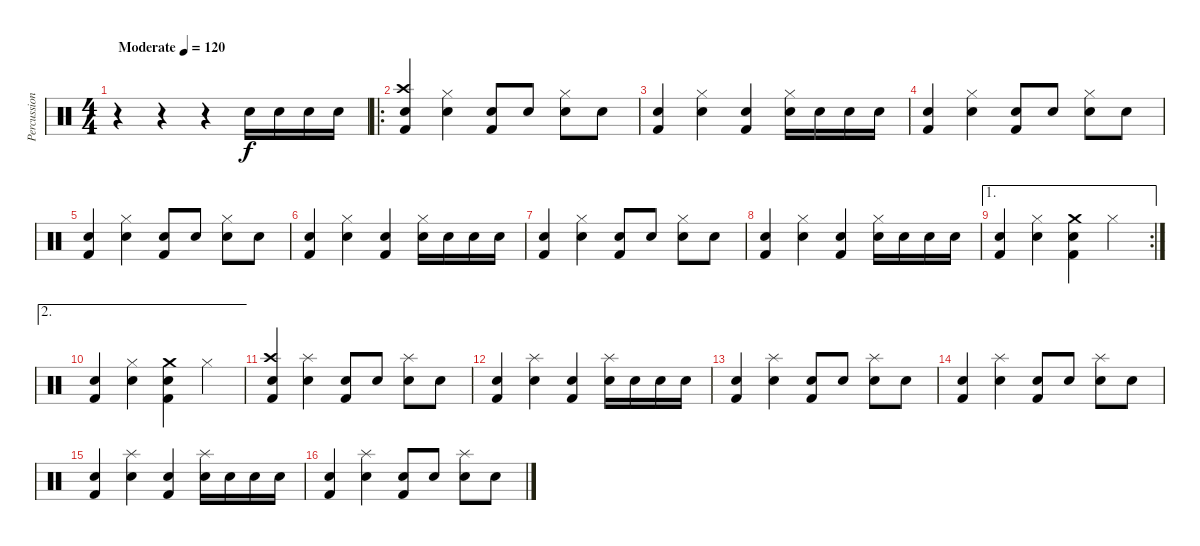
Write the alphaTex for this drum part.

\track ("Percussion" "Percussion") {instrument percussion}
\staff {score}
\articulation defaults
\ts (4 4)
\tempo (120 "Moderate")
\tempo 205
\tempo (120 "Moderate")
\clef neutral
\ks c
r.4{dy f} r.4 r.4 "Snare (hit) 2".16 "Snare (hit) 2".16 "Snare (hit) 2".16 "Snare (hit) 2".16 |
\ro
("Crash high (hit)" "Snare (hit) 2" "Kick (hit) 2").4 ("Hi-Hat (closed)" "Snare (hit) 2").4 ("Snare (hit) 2" "Kick (hit) 2").8 "Snare (hit) 2".8 ("Hi-Hat (closed)" "Snare (hit) 2").8 "Snare (hit) 2".8 |
("Snare (hit) 2" "Kick (hit) 2").4 ("Hi-Hat (closed)" "Snare (hit) 2").4 ("Snare (hit) 2" "Kick (hit) 2").4 ("Hi-Hat (closed)" "Snare (hit) 2").16 "Snare (hit) 2".16 "Snare (hit) 2".16 "Snare (hit) 2".16 |
("Snare (hit) 2" "Kick (hit) 2").4 ("Hi-Hat (closed)" "Snare (hit) 2").4 ("Snare (hit) 2" "Kick (hit) 2").8 "Snare (hit) 2".8 ("Hi-Hat (closed)" "Snare (hit) 2").8 "Snare (hit) 2".8 |
("Snare (hit) 2" "Kick (hit) 2").4 ("Hi-Hat (closed)" "Snare (hit) 2").4 ("Snare (hit) 2" "Kick (hit) 2").8 "Snare (hit) 2".8 ("Hi-Hat (closed)" "Snare (hit) 2").8 "Snare (hit) 2".8 |
("Snare (hit) 2" "Kick (hit) 2").4 ("Hi-Hat (closed)" "Snare (hit) 2").4 ("Snare (hit) 2" "Kick (hit) 2").4 ("Hi-Hat (closed)" "Snare (hit) 2").16 "Snare (hit) 2".16 "Snare (hit) 2".16 "Snare (hit) 2".16 |
("Snare (hit) 2" "Kick (hit) 2").4 ("Hi-Hat (closed)" "Snare (hit) 2").4 ("Snare (hit) 2" "Kick (hit) 2").8 "Snare (hit) 2".8 ("Hi-Hat (closed)" "Snare (hit) 2").8 "Snare (hit) 2".8 |
("Snare (hit) 2" "Kick (hit) 2").4 ("Hi-Hat (closed)" "Snare (hit) 2").4 ("Snare (hit) 2" "Kick (hit) 2").4 ("Hi-Hat (closed)" "Snare (hit) 2").16 "Snare (hit) 2".16 "Snare (hit) 2".16 "Snare (hit) 2".16 |
\ae 1
\rc 2
("Snare (hit) 2" "Kick (hit) 2").4 ("Hi-Hat (closed)" "Snare (hit) 2").4 ("Crash medium (hit)" "Snare (hit) 2" "Kick (hit) 2").4 "Hi-Hat (closed)".4 |
\ae 2
("Snare (hit) 2" "Kick (hit) 2").4 ("Hi-Hat (closed)" "Snare (hit) 2").4 ("Crash medium (hit)" "Snare (hit) 2" "Kick (hit) 2").4 "Hi-Hat (closed)".4 |
("Crash high (hit)" "Snare (hit) 2" "Kick (hit) 2").4 ("Splash (hit)" "Snare (hit) 2").4 ("Snare (hit) 2" "Kick (hit) 2").8 "Snare (hit) 2".8 ("Splash (hit)" "Snare (hit) 2").8 "Snare (hit) 2".8 |
("Snare (hit) 2" "Kick (hit) 2").4 ("Splash (hit)" "Snare (hit) 2").4 ("Snare (hit) 2" "Kick (hit) 2").4 ("Splash (hit)" "Snare (hit) 2").16 "Snare (hit) 2".16 "Snare (hit) 2".16 "Snare (hit) 2".16 |
("Snare (hit) 2" "Kick (hit) 2").4 ("Splash (hit)" "Snare (hit) 2").4 ("Snare (hit) 2" "Kick (hit) 2").8 "Snare (hit) 2".8 ("Splash (hit)" "Snare (hit) 2").8 "Snare (hit) 2".8 |
("Snare (hit) 2" "Kick (hit) 2").4 ("Splash (hit)" "Snare (hit) 2").4 ("Snare (hit) 2" "Kick (hit) 2").8 "Snare (hit) 2".8 ("Splash (hit)" "Snare (hit) 2").8 "Snare (hit) 2".8 |
("Snare (hit) 2" "Kick (hit) 2").4 ("Splash (hit)" "Snare (hit) 2").4 ("Snare (hit) 2" "Kick (hit) 2").4 ("Splash (hit)" "Snare (hit) 2").16 "Snare (hit) 2".16 "Snare (hit) 2".16 "Snare (hit) 2".16 |
("Snare (hit) 2" "Kick (hit) 2").4 ("Splash (hit)" "Snare (hit) 2").4 ("Snare (hit) 2" "Kick (hit) 2").8 "Snare (hit) 2".8 ("Splash (hit)" "Snare (hit) 2").8 "Snare (hit) 2".8
